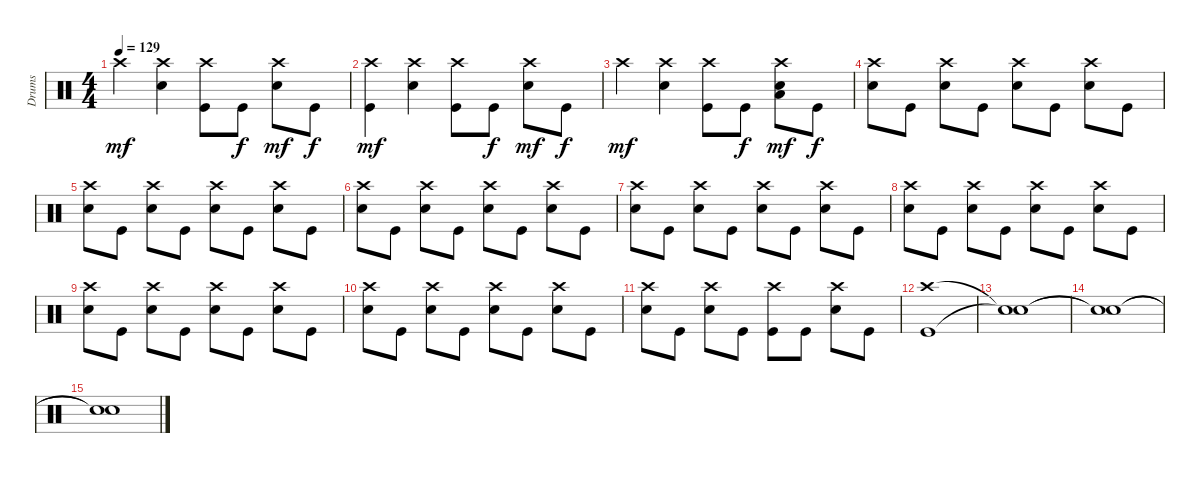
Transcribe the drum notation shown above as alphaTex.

\track ("Drums" "Drums") {instrument percussion}
\staff {score}
\articulation defaults
\ts (4 4)
\tempo 129
\clef neutral
\ks c "Crash high (hit)".4{dy mf}
("Crash high (hit)" "Snare (hit) 2").4 ("Crash high (hit)" "Kick (hit)").8 "Kick (hit)".8{dy f} ("Crash high (hit)" "Snare (hit) 2").8{dy mf} "Kick (hit)".8{dy f} |
("Crash high (hit)" "Kick (hit)").4{dy mf} ("Crash high (hit)" "Snare (hit) 2").4 ("Crash high (hit)" "Kick (hit)").8 "Kick (hit)".8{dy f} ("Crash high (hit)" "Snare (hit) 2").8{dy mf} "Kick (hit)".8{dy f} |
"Crash high (hit)".4{dy mf} ("Crash high (hit)" "Snare (hit) 2").4 ("Crash high (hit)" "Kick (hit)").8 "Kick (hit)".8{dy f} ("Crash high (hit)" "Low Floor Tom (hit)" "Snare (hit) 2").8{dy mf} "Kick (hit)".8{dy f} |
("Crash high (hit)" "Snare (hit) 2").8 "Kick (hit)".8 ("Crash high (hit)" "Snare (hit) 2").8 "Kick (hit)".8 ("Crash high (hit)" "Snare (hit) 2").8 "Kick (hit)".8 ("Crash high (hit)" "Snare (hit) 2").8 "Kick (hit)".8 |
("Crash high (hit)" "Snare (hit) 2").8 "Kick (hit)".8 ("Crash high (hit)" "Snare (hit) 2").8 "Kick (hit)".8 ("Crash high (hit)" "Snare (hit) 2").8 "Kick (hit)".8 ("Crash high (hit)" "Snare (hit) 2").8 "Kick (hit)".8 |
("Crash high (hit)" "Snare (hit) 2").8 "Kick (hit)".8 ("Crash high (hit)" "Snare (hit) 2").8 "Kick (hit)".8 ("Crash high (hit)" "Snare (hit) 2").8 "Kick (hit)".8 ("Crash high (hit)" "Snare (hit) 2").8 "Kick (hit)".8 |
("Crash high (hit)" "Snare (hit) 2").8 "Kick (hit)".8 ("Crash high (hit)" "Snare (hit) 2").8 "Kick (hit)".8 ("Crash high (hit)" "Snare (hit) 2").8 "Kick (hit)".8 ("Crash high (hit)" "Snare (hit) 2").8 "Kick (hit)".8 |
("Crash high (hit)" "Snare (hit) 2").8 "Kick (hit)".8 ("Crash high (hit)" "Snare (hit) 2").8 "Kick (hit)".8 ("Crash high (hit)" "Snare (hit) 2").8 "Kick (hit)".8 ("Crash high (hit)" "Snare (hit) 2").8 "Kick (hit)".8 |
("Crash high (hit)" "Snare (hit) 2").8 "Kick (hit)".8 ("Crash high (hit)" "Snare (hit) 2").8 "Kick (hit)".8 ("Crash high (hit)" "Snare (hit) 2").8 "Kick (hit)".8 ("Crash high (hit)" "Snare (hit) 2").8 "Kick (hit)".8 |
("Crash high (hit)" "Snare (hit) 2").8 "Kick (hit)".8 ("Crash high (hit)" "Snare (hit) 2").8 "Kick (hit)".8 ("Crash high (hit)" "Snare (hit) 2").8 "Kick (hit)".8 ("Crash high (hit)" "Snare (hit) 2").8 "Kick (hit)".8 |
("Crash high (hit)" "Snare (hit) 2").8 "Kick (hit)".8 ("Crash high (hit)" "Snare (hit) 2").8 "Kick (hit)".8 ("Crash high (hit)" "Kick (hit)").8 "Kick (hit)".8 ("Crash high (hit)" "Snare (hit) 2").8 "Kick (hit)".8 |
("Crash high (hit)" "Kick (hit)").1 |
("Snare (hit)"{t} "Snare (hit)"{t}).1 |
("Snare (hit)"{t} "Snare (hit)"{t}).1 |
("Snare (hit)"{t} "Snare (hit)"{t}).1
